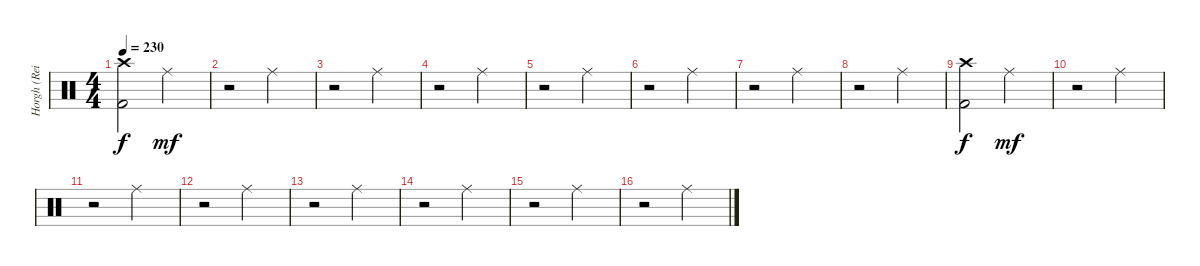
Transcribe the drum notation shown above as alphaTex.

\track ("Horgh (Reidar Horghagen)" "Horgh (Rei") {instrument percussion}
\staff {score}
\articulation defaults
\ts (4 4)
\tempo 230
\clef neutral
\ks c
("Crash high (hit)" "Kick (hit) 2").2{dy f} "Ride (middle)".2{dy mf} |
r.2 "Ride (middle)".2 |
r.2 "Ride (middle)".2 |
r.2 "Ride (middle)".2 |
r.2 "Ride (middle)".2 |
r.2 "Ride (middle)".2 |
r.2 "Ride (middle)".2 |
r.2 "Ride (middle)".2 |
("Crash high (hit)" "Kick (hit) 2").2{dy f} "Ride (middle)".2{dy mf} |
r.2 "Ride (middle)".2 |
r.2 "Ride (middle)".2 |
r.2 "Ride (middle)".2 |
r.2 "Ride (middle)".2 |
r.2 "Ride (middle)".2 |
r.2 "Ride (middle)".2 |
r.2 "Ride (middle)".2
